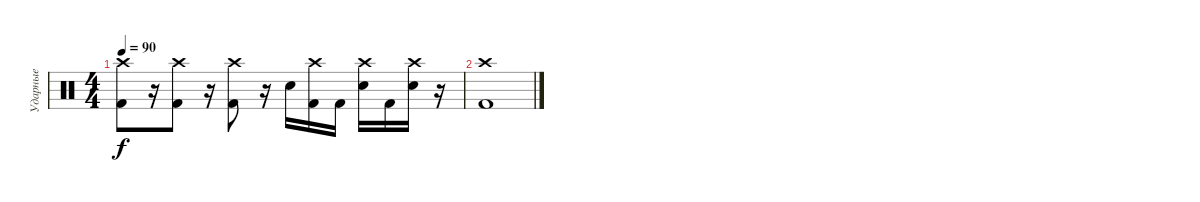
\track ("Ударные" "Ударные") {instrument percussion}
\staff {score}
\articulation defaults
\ts (4 4)
\tempo 90
\clef neutral
\ks c
("Crash high (hit)" "Kick (hit) 2").8{dy f} r.16 ("Crash high (hit)" "Kick (hit) 2").8 r.16 ("Crash high (hit)" "Kick (hit) 2").8 r.16 "Electric Snare (hit)".16 ("Crash high (hit)" "Kick (hit) 2").16 "Kick (hit) 2".16 ("Crash high (hit)" "Electric Snare (hit)").16 "Kick (hit) 2".16 ("Crash high (hit)" "Electric Snare (hit)").16 r.16 |
("Crash high (hit)" "Kick (hit) 2").1
